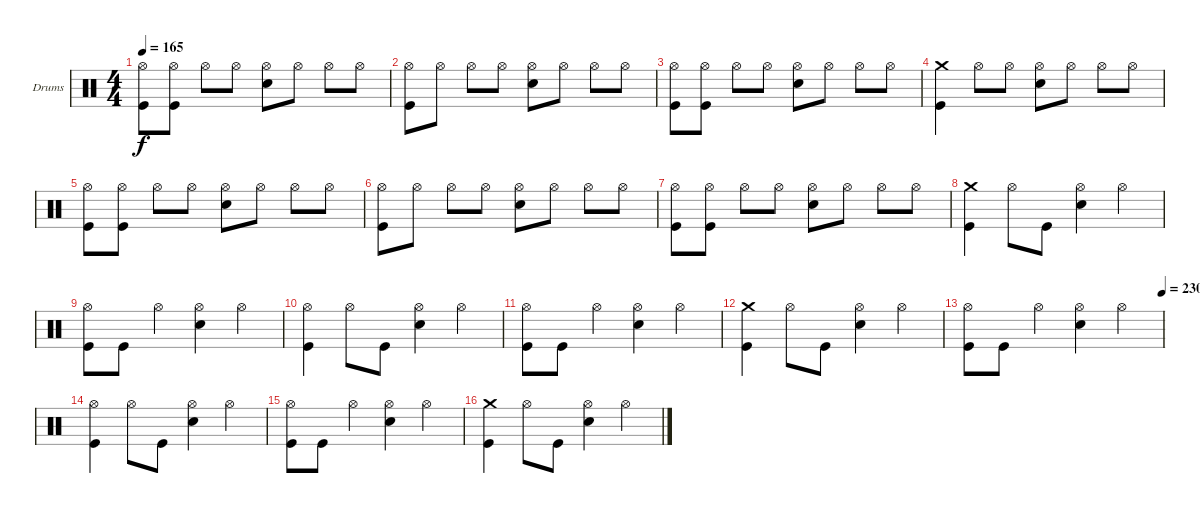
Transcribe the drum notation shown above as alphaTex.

\defaultSystemsLayout 4
\bracketExtendMode groupsimilarinstruments
\firstSystemTrackNameOrientation horizontal
\otherSystemsTrackNameOrientation horizontal
\track ("Drumkit" "Drums") {instrument percussion}
\staff {score}
\articulation defaults
\ts (4 4)
\tempo 165
\clef neutral
\ks c
("Kick (hit)" "Hi-Hat (open)").8{dy f} ("Kick (hit)" "Hi-Hat (open)").8 "Hi-Hat (open)".8 "Hi-Hat (open)".8 ("Snare (hit) 2" "Hi-Hat (open)").8 "Hi-Hat (open)".8 "Hi-Hat (open)".8 "Hi-Hat (open)".8 |
("Kick (hit)" "Hi-Hat (open)").8 "Hi-Hat (open)".8 "Hi-Hat (open)".8 "Hi-Hat (open)".8 ("Snare (hit) 2" "Hi-Hat (open)").8 "Hi-Hat (open)".8 "Hi-Hat (open)".8 "Hi-Hat (open)".8 |
("Kick (hit)" "Hi-Hat (open)").8 ("Kick (hit)" "Hi-Hat (open)").8 "Hi-Hat (open)".8 "Hi-Hat (open)".8 ("Snare (hit) 2" "Hi-Hat (open)").8 "Hi-Hat (open)".8 "Hi-Hat (open)".8 "Hi-Hat (open)".8 |
("Kick (hit)" "Crash medium (hit)").4 "Hi-Hat (open)".8 "Hi-Hat (open)".8 ("Snare (hit) 2" "Hi-Hat (open)").8 "Hi-Hat (open)".8 "Hi-Hat (open)".8 "Hi-Hat (open)".8 |
("Kick (hit)" "Hi-Hat (open)").8 ("Kick (hit)" "Hi-Hat (open)").8 "Hi-Hat (open)".8 "Hi-Hat (open)".8 ("Snare (hit) 2" "Hi-Hat (open)").8 "Hi-Hat (open)".8 "Hi-Hat (open)".8 "Hi-Hat (open)".8 |
("Kick (hit)" "Hi-Hat (open)").8 "Hi-Hat (open)".8 "Hi-Hat (open)".8 "Hi-Hat (open)".8 ("Snare (hit) 2" "Hi-Hat (open)").8 "Hi-Hat (open)".8 "Hi-Hat (open)".8 "Hi-Hat (open)".8 |
("Kick (hit)" "Hi-Hat (open)").8 ("Kick (hit)" "Hi-Hat (open)").8 "Hi-Hat (open)".8 "Hi-Hat (open)".8 ("Snare (hit) 2" "Hi-Hat (open)").8 "Hi-Hat (open)".8 "Hi-Hat (open)".8 "Hi-Hat (open)".8 |
("Kick (hit)" "Crash medium (hit)").4 "Hi-Hat (open)".8 "Kick (hit)".8 ("Snare (hit) 2" "Hi-Hat (open)").4 "Hi-Hat (open)".4 |
("Kick (hit)" "Hi-Hat (open)").8 "Kick (hit)".8 "Hi-Hat (open)".4 ("Snare (hit) 2" "Hi-Hat (open)").4 "Hi-Hat (open)".4 |
("Kick (hit)" "Hi-Hat (open)").4 "Hi-Hat (open)".8 "Kick (hit)".8 ("Snare (hit) 2" "Hi-Hat (open)").4 "Hi-Hat (open)".4 |
("Kick (hit)" "Hi-Hat (open)").8 "Kick (hit)".8 "Hi-Hat (open)".4 ("Snare (hit) 2" "Hi-Hat (open)").4 "Hi-Hat (open)".4 |
("Kick (hit)" "Crash medium (hit)").4 "Hi-Hat (open)".8 "Kick (hit)".8 ("Snare (hit) 2" "Hi-Hat (open)").4 "Hi-Hat (open)".4 |
\tempo (230 1)
("Kick (hit)" "Hi-Hat (open)").8 "Kick (hit)".8 "Hi-Hat (open)".4 ("Snare (hit) 2" "Hi-Hat (open)").4 "Hi-Hat (open)".4 |
("Kick (hit)" "Hi-Hat (open)").4 "Hi-Hat (open)".8 "Kick (hit)".8 ("Snare (hit) 2" "Hi-Hat (open)").4 "Hi-Hat (open)".4 |
("Kick (hit)" "Hi-Hat (open)").8 "Kick (hit)".8 "Hi-Hat (open)".4 ("Snare (hit) 2" "Hi-Hat (open)").4 "Hi-Hat (open)".4 |
("Kick (hit)" "Crash medium (hit)").4 "Hi-Hat (open)".8 "Kick (hit)".8 ("Snare (hit) 2" "Hi-Hat (open)").4 "Hi-Hat (open)".4
